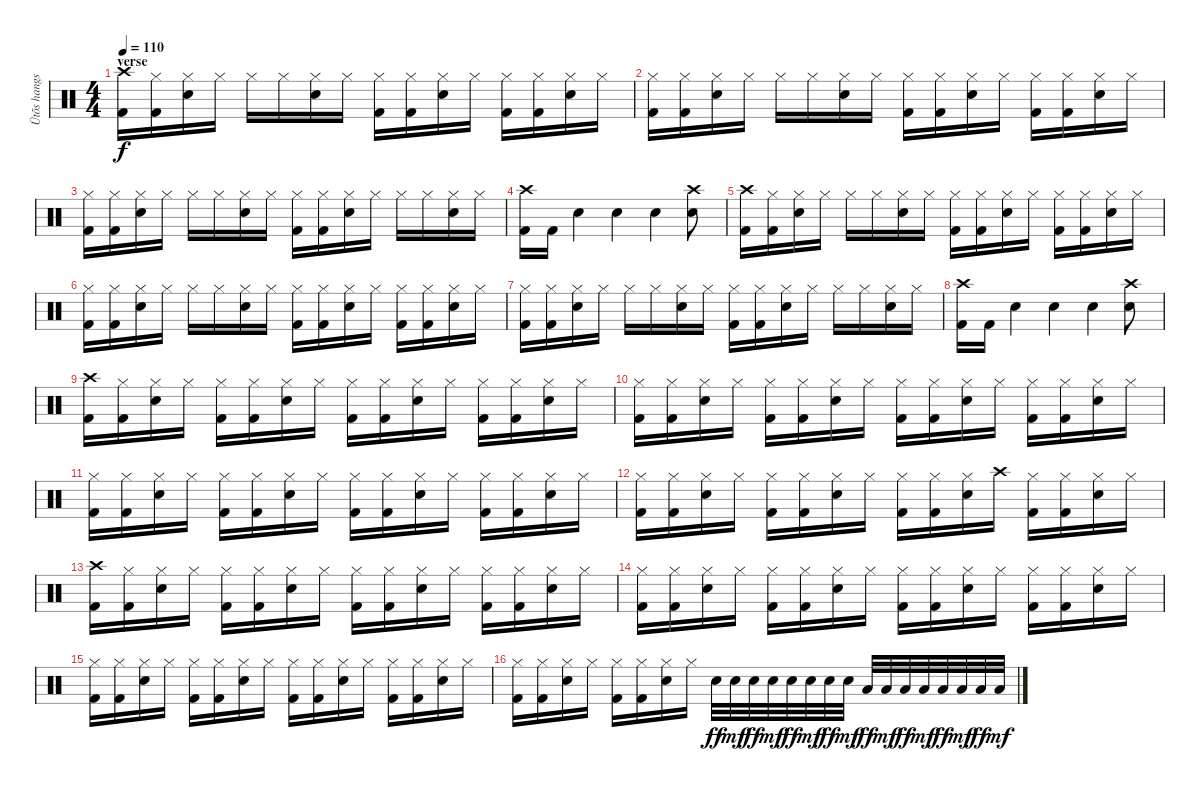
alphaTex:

\track ("Ütõs hangszer" "Ütõs hangs") {instrument percussion}
\staff {score}
\articulation defaults
\ts (4 4)
\section ("" "verse")
\tempo 110
\clef neutral
\ks c
("Crash high (hit)" "Kick (hit) 2").16{dy f} ("Hi-Hat (closed)" "Kick (hit) 2").16 ("Hi-Hat (closed)" "Snare (hit) 2").16 "Hi-Hat (closed)".16 "Hi-Hat (closed)".16 "Hi-Hat (closed)".16 ("Hi-Hat (closed)" "Snare (hit) 2").16 "Hi-Hat (closed)".16 ("Hi-Hat (closed)" "Kick (hit) 2").16 ("Hi-Hat (closed)" "Kick (hit) 2").16 ("Hi-Hat (closed)" "Snare (hit) 2").16 "Hi-Hat (closed)".16 ("Hi-Hat (closed)" "Kick (hit) 2").16 ("Hi-Hat (closed)" "Kick (hit) 2").16 ("Hi-Hat (closed)" "Snare (hit) 2").16 "Hi-Hat (closed)".16 |
("Hi-Hat (closed)" "Kick (hit) 2").16 ("Hi-Hat (closed)" "Kick (hit) 2").16 ("Hi-Hat (closed)" "Snare (hit) 2").16 "Hi-Hat (closed)".16 "Hi-Hat (closed)".16 "Hi-Hat (closed)".16 ("Hi-Hat (closed)" "Snare (hit) 2").16 "Hi-Hat (closed)".16 ("Hi-Hat (closed)" "Kick (hit) 2").16 ("Hi-Hat (closed)" "Kick (hit) 2").16 ("Hi-Hat (closed)" "Snare (hit) 2").16 "Hi-Hat (closed)".16 ("Hi-Hat (closed)" "Kick (hit) 2").16 ("Hi-Hat (closed)" "Kick (hit) 2").16 ("Hi-Hat (closed)" "Snare (hit) 2").16 "Hi-Hat (closed)".16 |
("Hi-Hat (closed)" "Kick (hit) 2").16 ("Hi-Hat (closed)" "Kick (hit) 2").16 ("Hi-Hat (closed)" "Snare (hit) 2").16 "Hi-Hat (closed)".16 "Hi-Hat (closed)".16 "Hi-Hat (closed)".16 ("Hi-Hat (closed)" "Snare (hit) 2").16 "Hi-Hat (closed)".16 ("Hi-Hat (closed)" "Kick (hit) 2").16 ("Hi-Hat (closed)" "Kick (hit) 2").16 ("Hi-Hat (closed)" "Snare (hit) 2").16 "Hi-Hat (closed)".16 "Hi-Hat (closed)".16 "Hi-Hat (closed)".16 ("Hi-Hat (closed)" "Snare (hit) 2").16 "Hi-Hat (closed)".16 |
("Crash high (hit)" "Kick (hit) 2").16 "Kick (hit) 2".16 "Snare (hit) 2".4 "Snare (hit) 2".4 "Snare (hit) 2".4 ("Crash high (hit)" "Snare (hit) 2").8 |
("Crash high (hit)" "Kick (hit) 2").16 ("Hi-Hat (closed)" "Kick (hit) 2").16 ("Hi-Hat (closed)" "Snare (hit) 2").16 "Hi-Hat (closed)".16 "Hi-Hat (closed)".16 "Hi-Hat (closed)".16 ("Hi-Hat (closed)" "Snare (hit) 2").16 "Hi-Hat (closed)".16 ("Hi-Hat (closed)" "Kick (hit) 2").16 ("Hi-Hat (closed)" "Kick (hit) 2").16 ("Hi-Hat (closed)" "Snare (hit) 2").16 "Hi-Hat (closed)".16 ("Hi-Hat (closed)" "Kick (hit) 2").16 ("Hi-Hat (closed)" "Kick (hit) 2").16 ("Hi-Hat (closed)" "Snare (hit) 2").16 "Hi-Hat (closed)".16 |
("Hi-Hat (closed)" "Kick (hit) 2").16 ("Hi-Hat (closed)" "Kick (hit) 2").16 ("Hi-Hat (closed)" "Snare (hit) 2").16 "Hi-Hat (closed)".16 "Hi-Hat (closed)".16 "Hi-Hat (closed)".16 ("Hi-Hat (closed)" "Snare (hit) 2").16 "Hi-Hat (closed)".16 ("Hi-Hat (closed)" "Kick (hit) 2").16 ("Hi-Hat (closed)" "Kick (hit) 2").16 ("Hi-Hat (closed)" "Snare (hit) 2").16 "Hi-Hat (closed)".16 ("Hi-Hat (closed)" "Kick (hit) 2").16 ("Hi-Hat (closed)" "Kick (hit) 2").16 ("Hi-Hat (closed)" "Snare (hit) 2").16 "Hi-Hat (closed)".16 |
("Hi-Hat (closed)" "Kick (hit) 2").16 ("Hi-Hat (closed)" "Kick (hit) 2").16 ("Hi-Hat (closed)" "Snare (hit) 2").16 "Hi-Hat (closed)".16 "Hi-Hat (closed)".16 "Hi-Hat (closed)".16 ("Hi-Hat (closed)" "Snare (hit) 2").16 "Hi-Hat (closed)".16 ("Hi-Hat (closed)" "Kick (hit) 2").16 ("Hi-Hat (closed)" "Kick (hit) 2").16 ("Hi-Hat (closed)" "Snare (hit) 2").16 "Hi-Hat (closed)".16 "Hi-Hat (closed)".16 "Hi-Hat (closed)".16 ("Hi-Hat (closed)" "Snare (hit) 2").16 "Hi-Hat (closed)".16 |
("Crash high (hit)" "Kick (hit) 2").16 "Kick (hit) 2".16 "Snare (hit) 2".4 "Snare (hit) 2".4 "Snare (hit) 2".4 ("Crash high (hit)" "Snare (hit) 2").8 |
("Crash high (hit)" "Kick (hit) 2").16 ("Hi-Hat (closed)" "Kick (hit) 2").16 ("Hi-Hat (closed)" "Snare (hit) 2").16 "Hi-Hat (closed)".16 ("Hi-Hat (closed)" "Kick (hit) 2").16 ("Hi-Hat (closed)" "Kick (hit) 2").16 ("Hi-Hat (closed)" "Snare (hit) 2").16 "Hi-Hat (closed)".16 ("Hi-Hat (closed)" "Kick (hit) 2").16 ("Hi-Hat (closed)" "Kick (hit) 2").16 ("Hi-Hat (closed)" "Snare (hit) 2").16 "Hi-Hat (closed)".16 ("Hi-Hat (closed)" "Kick (hit) 2").16 ("Hi-Hat (closed)" "Kick (hit) 2").16 ("Hi-Hat (closed)" "Snare (hit) 2").16 "Hi-Hat (closed)".16 |
("Hi-Hat (closed)" "Kick (hit) 2").16 ("Hi-Hat (closed)" "Kick (hit) 2").16 ("Hi-Hat (closed)" "Snare (hit) 2").16 "Hi-Hat (closed)".16 ("Hi-Hat (closed)" "Kick (hit) 2").16 ("Hi-Hat (closed)" "Kick (hit) 2").16 ("Hi-Hat (closed)" "Snare (hit) 2").16 "Hi-Hat (closed)".16 ("Hi-Hat (closed)" "Kick (hit) 2").16 ("Hi-Hat (closed)" "Kick (hit) 2").16 ("Hi-Hat (closed)" "Snare (hit) 2").16 "Hi-Hat (closed)".16 ("Hi-Hat (closed)" "Kick (hit) 2").16 ("Hi-Hat (closed)" "Kick (hit) 2").16 ("Hi-Hat (closed)" "Snare (hit) 2").16 "Hi-Hat (closed)".16 |
("Hi-Hat (closed)" "Kick (hit) 2").16 ("Hi-Hat (closed)" "Kick (hit) 2").16 ("Hi-Hat (closed)" "Snare (hit) 2").16 "Hi-Hat (closed)".16 ("Hi-Hat (closed)" "Kick (hit) 2").16 ("Hi-Hat (closed)" "Kick (hit) 2").16 ("Hi-Hat (closed)" "Snare (hit) 2").16 "Hi-Hat (closed)".16 ("Hi-Hat (closed)" "Kick (hit) 2").16 ("Hi-Hat (closed)" "Kick (hit) 2").16 ("Hi-Hat (closed)" "Snare (hit) 2").16 "Hi-Hat (closed)".16 ("Hi-Hat (closed)" "Kick (hit) 2").16 ("Hi-Hat (closed)" "Kick (hit) 2").16 ("Hi-Hat (closed)" "Snare (hit) 2").16 "Hi-Hat (closed)".16 |
("Hi-Hat (closed)" "Kick (hit) 2").16 ("Hi-Hat (closed)" "Kick (hit) 2").16 ("Hi-Hat (closed)" "Snare (hit) 2").16 "Hi-Hat (closed)".16 ("Hi-Hat (closed)" "Kick (hit) 2").16 ("Hi-Hat (closed)" "Kick (hit) 2").16 ("Hi-Hat (closed)" "Snare (hit) 2").16 "Hi-Hat (closed)".16 ("Hi-Hat (closed)" "Kick (hit) 2").16 ("Hi-Hat (closed)" "Kick (hit) 2").16 ("Hi-Hat (closed)" "Snare (hit) 2").16 "Crash high (hit)".16 ("Hi-Hat (closed)" "Kick (hit) 2").16 ("Hi-Hat (closed)" "Kick (hit) 2").16 ("Hi-Hat (closed)" "Snare (hit) 2").16 "Hi-Hat (closed)".16 |
("Crash high (hit)" "Kick (hit) 2").16 ("Hi-Hat (closed)" "Kick (hit) 2").16 ("Hi-Hat (closed)" "Snare (hit) 2").16 "Hi-Hat (closed)".16 ("Hi-Hat (closed)" "Kick (hit) 2").16 ("Hi-Hat (closed)" "Kick (hit) 2").16 ("Hi-Hat (closed)" "Snare (hit) 2").16 "Hi-Hat (closed)".16 ("Hi-Hat (closed)" "Kick (hit) 2").16 ("Hi-Hat (closed)" "Kick (hit) 2").16 ("Hi-Hat (closed)" "Snare (hit) 2").16 "Hi-Hat (closed)".16 ("Hi-Hat (closed)" "Kick (hit) 2").16 ("Hi-Hat (closed)" "Kick (hit) 2").16 ("Hi-Hat (closed)" "Snare (hit) 2").16 "Hi-Hat (closed)".16 |
("Hi-Hat (closed)" "Kick (hit) 2").16 ("Hi-Hat (closed)" "Kick (hit) 2").16 ("Hi-Hat (closed)" "Snare (hit) 2").16 "Hi-Hat (closed)".16 ("Hi-Hat (closed)" "Kick (hit) 2").16 ("Hi-Hat (closed)" "Kick (hit) 2").16 ("Hi-Hat (closed)" "Snare (hit) 2").16 "Hi-Hat (closed)".16 ("Hi-Hat (closed)" "Kick (hit) 2").16 ("Hi-Hat (closed)" "Kick (hit) 2").16 ("Hi-Hat (closed)" "Snare (hit) 2").16 "Hi-Hat (closed)".16 ("Hi-Hat (closed)" "Kick (hit) 2").16 ("Hi-Hat (closed)" "Kick (hit) 2").16 ("Hi-Hat (closed)" "Snare (hit) 2").16 "Hi-Hat (closed)".16 |
("Hi-Hat (closed)" "Kick (hit) 2").16 ("Hi-Hat (closed)" "Kick (hit) 2").16 ("Hi-Hat (closed)" "Snare (hit) 2").16 "Hi-Hat (closed)".16 ("Hi-Hat (closed)" "Kick (hit) 2").16 ("Hi-Hat (closed)" "Kick (hit) 2").16 ("Hi-Hat (closed)" "Snare (hit) 2").16 "Hi-Hat (closed)".16 ("Hi-Hat (closed)" "Kick (hit) 2").16 ("Hi-Hat (closed)" "Kick (hit) 2").16 ("Hi-Hat (closed)" "Snare (hit) 2").16 "Hi-Hat (closed)".16 ("Hi-Hat (closed)" "Kick (hit) 2").16 ("Hi-Hat (closed)" "Kick (hit) 2").16 ("Hi-Hat (closed)" "Snare (hit) 2").16 "Hi-Hat (closed)".16 |
("Hi-Hat (closed)" "Kick (hit) 2").16 ("Hi-Hat (closed)" "Kick (hit) 2").16 ("Hi-Hat (closed)" "Snare (hit) 2").16 "Hi-Hat (closed)".16 ("Hi-Hat (closed)" "Kick (hit) 2").16 ("Hi-Hat (closed)" "Kick (hit) 2").16 ("Hi-Hat (closed)" "Snare (hit) 2").16 "Hi-Hat (closed)".16 "Snare (hit) 2".32{dy ff} "Snare (hit) 2".32{dy mf} "Snare (hit) 2".32{dy ff} "Snare (hit) 2".32{dy mf} "Snare (hit) 2".32{dy ff} "Snare (hit) 2".32{dy mf} "Snare (hit) 2".32{dy ff} "Snare (hit) 2".32{dy mf} "Low Tom (hit)".32{dy ff} "Low Tom (hit)".32{dy mf} "Low Tom (hit)".32{dy ff} "Low Tom (hit)".32{dy mf} "Low Tom (hit)".32{dy ff} "Low Tom (hit)".32{dy mf} "Low Tom (hit)".32{dy ff} "Low Tom (hit)".32{dy mf}
